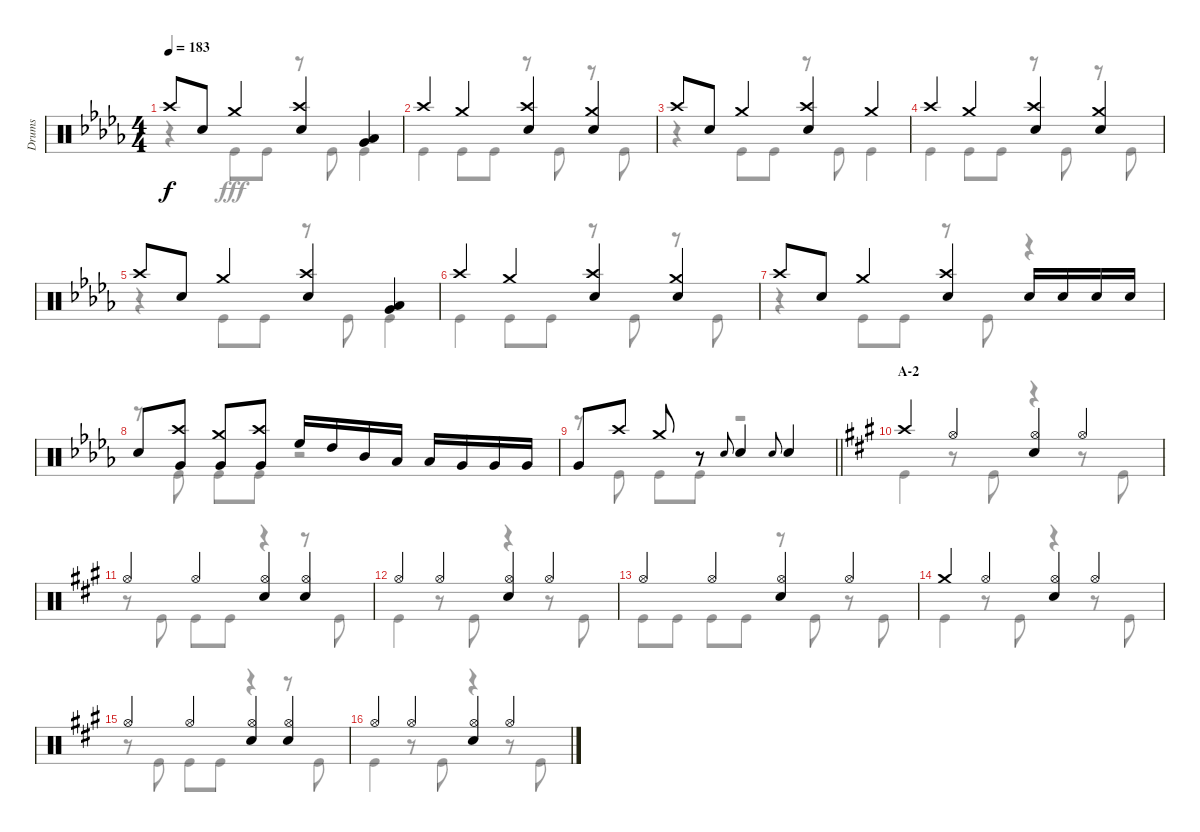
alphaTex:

\track ("Drums" "Drums") {instrument percussion}
\staff {score}
\articulation defaults
\voice
\ts (4 4)
\tempo 183
\clef neutral
\ks db "Crash high (hit)".8{dy f} "Snare (hit) 2".8 "Crash medium (hit)".4
("Crash high (hit)" "Snare (hit) 2").4 ("Low Tom (hit)" "Very Low Tom (hit)").4 |
"Crash high (hit)".4 "Crash medium (hit)".4 ("Crash high (hit)" "Snare (hit) 2").4 ("Crash medium (hit)" "Snare (hit) 2").4 |
"Crash high (hit)".8 "Snare (hit) 2".8 "Crash medium (hit)".4 ("Crash high (hit)" "Snare (hit) 2").4 "Crash medium (hit)".4 |
"Crash high (hit)".4 "Crash medium (hit)".4 ("Crash high (hit)" "Snare (hit) 2").4 ("Crash medium (hit)" "Snare (hit) 2").4 |
"Crash high (hit)".8 "Snare (hit) 2".8 "Crash medium (hit)".4 ("Crash high (hit)" "Snare (hit) 2").4 ("Low Tom (hit)" "Very Low Tom (hit)").4 |
"Crash high (hit)".4 "Crash medium (hit)".4 ("Crash high (hit)" "Snare (hit) 2").4 ("Crash medium (hit)" "Snare (hit) 2").4 |
"Crash high (hit)".8 "Snare (hit) 2".8 "Crash medium (hit)".4 ("Crash high (hit)" "Snare (hit) 2").4 "Snare (hit) 2".16 "Snare (hit) 2".16 "Snare (hit) 2".16 "Snare (hit) 2".16 |
"Snare (hit) 2".8 ("Crash high (hit)" "Very Low Tom (hit)").8 ("Crash medium (hit)" "Very Low Tom (hit)").8 ("Crash high (hit)" "Very Low Tom (hit)").8 "High Floor Tom (hit)".16 "High Tom (hit)".16 "Mid Tom (hit)".16 "Low Tom (hit)".16 "Low Tom (hit)".16 "Very Low Tom (hit)".16 "Very Low Tom (hit)".16 "Very Low Tom (hit)".16 |
\barLineRight lightlight "Very Low Tom (hit)".8 "Crash high (hit)".8 "Crash medium (hit)".8
r.8 "Snare (hit) 2".8{gr onbeat} "Snare (hit) 2".4 "Snare (hit) 2".8{gr onbeat} "Snare (hit) 2".4 |
\section ("" "A-2")
\ks a "Crash high (hit)".4 "Hi-Hat (open)".4
("Hi-Hat (open)" "Snare (hit) 2").4 "Hi-Hat (open)".4 |
"Hi-Hat (open)".4 "Hi-Hat (open)".4 ("Hi-Hat (open)" "Snare (hit) 2").4 ("Hi-Hat (open)" "Snare (hit) 2").4 |
"Hi-Hat (open)".4 "Hi-Hat (open)".4 ("Hi-Hat (open)" "Snare (hit) 2").4 "Hi-Hat (open)".4 |
"Hi-Hat (open)".4 "Hi-Hat (open)".4 ("Hi-Hat (open)" "Snare (hit) 2").4 "Hi-Hat (open)".4 |
"Crash medium (hit)".4 "Hi-Hat (open)".4 ("Hi-Hat (open)" "Snare (hit) 2").4 "Hi-Hat (open)".4 |
"Hi-Hat (open)".4 "Hi-Hat (open)".4 ("Hi-Hat (open)" "Snare (hit) 2").4 ("Hi-Hat (open)" "Snare (hit) 2").4 |
"Hi-Hat (open)".4 "Hi-Hat (open)".4 ("Hi-Hat (open)" "Snare (hit) 2").4 "Hi-Hat (open)".4
\voice
\clef neutral
\ottava regular
\simile none
\ks db
r.4{dy fff} "Kick (hit)".8 "Kick (hit)".8 r.8 "Kick (hit)".8 "Kick (hit)".4 |
"Kick (hit)".4 "Kick (hit)".8 "Kick (hit)".8 r.8 "Kick (hit)".8 r.8 "Kick (hit)".8 |
r.4 "Kick (hit)".8 "Kick (hit)".8 r.8 "Kick (hit)".8 "Kick (hit)".4 |
"Kick (hit)".4 "Kick (hit)".8 "Kick (hit)".8 r.8 "Kick (hit)".8 r.8 "Kick (hit)".8 |
r.4 "Kick (hit)".8 "Kick (hit)".8 r.8 "Kick (hit)".8 "Kick (hit)".4 |
"Kick (hit)".4 "Kick (hit)".8 "Kick (hit)".8 r.8 "Kick (hit)".8 r.8 "Kick (hit)".8 |
r.4 "Kick (hit)".8 "Kick (hit)".8 r.8 "Kick (hit)".8 r.4 |
r.8 "Kick (hit)".8 "Kick (hit)".8 "Kick (hit)".8 r.2 |
\barLineRight lightlight
r.8 "Kick (hit)".8 "Kick (hit)".8 "Kick (hit)".8 r.2 |
\ks a "Kick (hit)".4
r.8 "Kick (hit)".8 r.4 r.8 "Kick (hit)".8 |
r.8 "Kick (hit)".8 "Kick (hit)".8 "Kick (hit)".8 r.4 r.8 "Kick (hit)".8 |
"Kick (hit)".4 r.8 "Kick (hit)".8 r.4 r.8 "Kick (hit)".8 |
"Kick (hit)".8 "Kick (hit)".8 "Kick (hit)".8 "Kick (hit)".8 r.8 "Kick (hit)".8 r.8 "Kick (hit)".8 |
"Kick (hit)".4 r.8 "Kick (hit)".8 r.4 r.8 "Kick (hit)".8 |
r.8 "Kick (hit)".8 "Kick (hit)".8 "Kick (hit)".8 r.4 r.8 "Kick (hit)".8 |
"Kick (hit)".4 r.8 "Kick (hit)".8 r.4 r.8 "Kick (hit)".8
